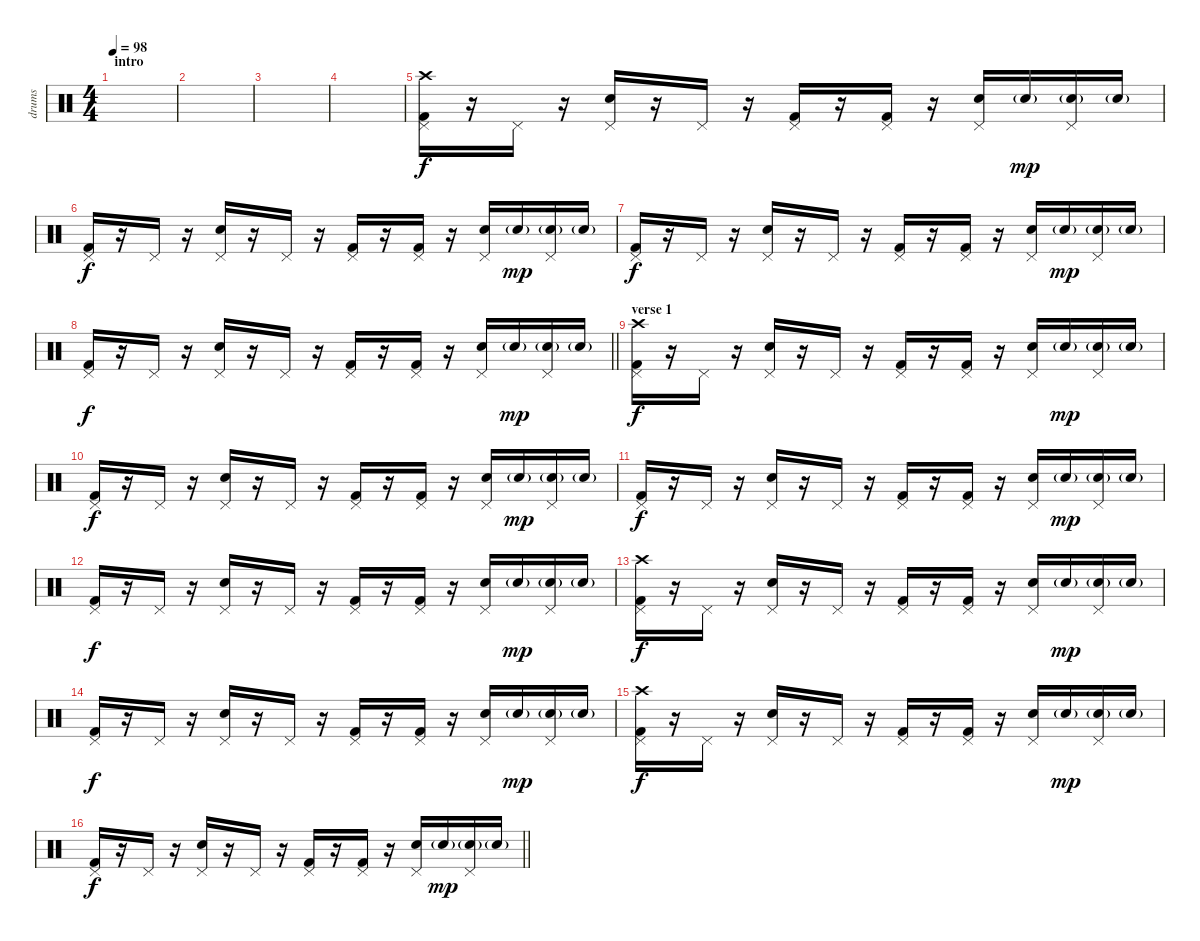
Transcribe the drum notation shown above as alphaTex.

\track ("drums" "drums") {instrument percussion}
\staff {score}
\articulation defaults
\ts (4 4)
\section ("" "intro")
\tempo 98
\clef neutral
\ks c
|
|
|
|
("Kick (hit) 2" "Pedal Hi-Hat (hit)" "Crash high (hit)").16 r.16 "Pedal Hi-Hat (hit)".16 r.16 ("Electric Snare (hit)" "Pedal Hi-Hat (hit)").16 r.16 "Pedal Hi-Hat (hit)".16 r.16 ("Kick (hit) 2" "Pedal Hi-Hat (hit)").16 r.16 ("Kick (hit) 2" "Pedal Hi-Hat (hit)").16 r.16 ("Electric Snare (hit)" "Pedal Hi-Hat (hit)").16 "Electric Snare (hit)"{g}.16{dy mp} ("Electric Snare (hit)"{g} "Pedal Hi-Hat (hit)").16 "Electric Snare (hit)"{g}.16 |
("Kick (hit) 2" "Pedal Hi-Hat (hit)").16{dy f} r.16 "Pedal Hi-Hat (hit)".16 r.16 ("Electric Snare (hit)" "Pedal Hi-Hat (hit)").16 r.16 "Pedal Hi-Hat (hit)".16 r.16 ("Kick (hit) 2" "Pedal Hi-Hat (hit)").16 r.16 ("Kick (hit) 2" "Pedal Hi-Hat (hit)").16 r.16 ("Electric Snare (hit)" "Pedal Hi-Hat (hit)").16 "Electric Snare (hit)"{g}.16{dy mp} ("Electric Snare (hit)"{g} "Pedal Hi-Hat (hit)").16 "Electric Snare (hit)"{g}.16 |
("Kick (hit) 2" "Pedal Hi-Hat (hit)").16{dy f} r.16 "Pedal Hi-Hat (hit)".16 r.16 ("Electric Snare (hit)" "Pedal Hi-Hat (hit)").16 r.16 "Pedal Hi-Hat (hit)".16 r.16 ("Kick (hit) 2" "Pedal Hi-Hat (hit)").16 r.16 ("Kick (hit) 2" "Pedal Hi-Hat (hit)").16 r.16 ("Electric Snare (hit)" "Pedal Hi-Hat (hit)").16 "Electric Snare (hit)"{g}.16{dy mp} ("Electric Snare (hit)"{g} "Pedal Hi-Hat (hit)").16 "Electric Snare (hit)"{g}.16 |
\barLineRight lightlight
("Kick (hit) 2" "Pedal Hi-Hat (hit)").16{dy f} r.16 "Pedal Hi-Hat (hit)".16 r.16 ("Electric Snare (hit)" "Pedal Hi-Hat (hit)").16 r.16 "Pedal Hi-Hat (hit)".16 r.16 ("Kick (hit) 2" "Pedal Hi-Hat (hit)").16 r.16 ("Kick (hit) 2" "Pedal Hi-Hat (hit)").16 r.16 ("Electric Snare (hit)" "Pedal Hi-Hat (hit)").16 "Electric Snare (hit)"{g}.16{dy mp} ("Electric Snare (hit)"{g} "Pedal Hi-Hat (hit)").16 "Electric Snare (hit)"{g}.16 |
\section ("" "verse 1")
("Kick (hit) 2" "Pedal Hi-Hat (hit)" "Crash high (hit)").16{dy f} r.16 "Pedal Hi-Hat (hit)".16 r.16 ("Electric Snare (hit)" "Pedal Hi-Hat (hit)").16 r.16 "Pedal Hi-Hat (hit)".16 r.16 ("Kick (hit) 2" "Pedal Hi-Hat (hit)").16 r.16 ("Kick (hit) 2" "Pedal Hi-Hat (hit)").16 r.16 ("Electric Snare (hit)" "Pedal Hi-Hat (hit)").16 "Electric Snare (hit)"{g}.16{dy mp} ("Electric Snare (hit)"{g} "Pedal Hi-Hat (hit)").16 "Electric Snare (hit)"{g}.16 |
("Kick (hit) 2" "Pedal Hi-Hat (hit)").16{dy f} r.16 "Pedal Hi-Hat (hit)".16 r.16 ("Electric Snare (hit)" "Pedal Hi-Hat (hit)").16 r.16 "Pedal Hi-Hat (hit)".16 r.16 ("Kick (hit) 2" "Pedal Hi-Hat (hit)").16 r.16 ("Kick (hit) 2" "Pedal Hi-Hat (hit)").16 r.16 ("Electric Snare (hit)" "Pedal Hi-Hat (hit)").16 "Electric Snare (hit)"{g}.16{dy mp} ("Electric Snare (hit)"{g} "Pedal Hi-Hat (hit)").16 "Electric Snare (hit)"{g}.16 |
("Kick (hit) 2" "Pedal Hi-Hat (hit)").16{dy f} r.16 "Pedal Hi-Hat (hit)".16 r.16 ("Electric Snare (hit)" "Pedal Hi-Hat (hit)").16 r.16 "Pedal Hi-Hat (hit)".16 r.16 ("Kick (hit) 2" "Pedal Hi-Hat (hit)").16 r.16 ("Kick (hit) 2" "Pedal Hi-Hat (hit)").16 r.16 ("Electric Snare (hit)" "Pedal Hi-Hat (hit)").16 "Electric Snare (hit)"{g}.16{dy mp} ("Electric Snare (hit)"{g} "Pedal Hi-Hat (hit)").16 "Electric Snare (hit)"{g}.16 |
("Kick (hit) 2" "Pedal Hi-Hat (hit)").16{dy f} r.16 "Pedal Hi-Hat (hit)".16 r.16 ("Electric Snare (hit)" "Pedal Hi-Hat (hit)").16 r.16 "Pedal Hi-Hat (hit)".16 r.16 ("Kick (hit) 2" "Pedal Hi-Hat (hit)").16 r.16 ("Kick (hit) 2" "Pedal Hi-Hat (hit)").16 r.16 ("Electric Snare (hit)" "Pedal Hi-Hat (hit)").16 "Electric Snare (hit)"{g}.16{dy mp} ("Electric Snare (hit)"{g} "Pedal Hi-Hat (hit)").16 "Electric Snare (hit)"{g}.16 |
("Kick (hit) 2" "Pedal Hi-Hat (hit)" "Crash high (hit)").16{dy f} r.16 "Pedal Hi-Hat (hit)".16 r.16 ("Electric Snare (hit)" "Pedal Hi-Hat (hit)").16 r.16 "Pedal Hi-Hat (hit)".16 r.16 ("Kick (hit) 2" "Pedal Hi-Hat (hit)").16 r.16 ("Kick (hit) 2" "Pedal Hi-Hat (hit)").16 r.16 ("Electric Snare (hit)" "Pedal Hi-Hat (hit)").16 "Electric Snare (hit)"{g}.16{dy mp} ("Electric Snare (hit)"{g} "Pedal Hi-Hat (hit)").16 "Electric Snare (hit)"{g}.16 |
("Kick (hit) 2" "Pedal Hi-Hat (hit)").16{dy f} r.16 "Pedal Hi-Hat (hit)".16 r.16 ("Electric Snare (hit)" "Pedal Hi-Hat (hit)").16 r.16 "Pedal Hi-Hat (hit)".16 r.16 ("Kick (hit) 2" "Pedal Hi-Hat (hit)").16 r.16 ("Kick (hit) 2" "Pedal Hi-Hat (hit)").16 r.16 ("Electric Snare (hit)" "Pedal Hi-Hat (hit)").16 "Electric Snare (hit)"{g}.16{dy mp} ("Electric Snare (hit)"{g} "Pedal Hi-Hat (hit)").16 "Electric Snare (hit)"{g}.16 |
("Kick (hit) 2" "Pedal Hi-Hat (hit)" "Crash high (hit)").16{dy f} r.16 "Pedal Hi-Hat (hit)".16 r.16 ("Electric Snare (hit)" "Pedal Hi-Hat (hit)").16 r.16 "Pedal Hi-Hat (hit)".16 r.16 ("Kick (hit) 2" "Pedal Hi-Hat (hit)").16 r.16 ("Kick (hit) 2" "Pedal Hi-Hat (hit)").16 r.16 ("Electric Snare (hit)" "Pedal Hi-Hat (hit)").16 "Electric Snare (hit)"{g}.16{dy mp} ("Electric Snare (hit)"{g} "Pedal Hi-Hat (hit)").16 "Electric Snare (hit)"{g}.16 |
\barLineRight lightlight
("Kick (hit) 2" "Pedal Hi-Hat (hit)").16{dy f} r.16 "Pedal Hi-Hat (hit)".16 r.16 ("Electric Snare (hit)" "Pedal Hi-Hat (hit)").16 r.16 "Pedal Hi-Hat (hit)".16 r.16 ("Kick (hit) 2" "Pedal Hi-Hat (hit)").16 r.16 ("Kick (hit) 2" "Pedal Hi-Hat (hit)").16 r.16 ("Electric Snare (hit)" "Pedal Hi-Hat (hit)").16 "Electric Snare (hit)"{g}.16{dy mp} ("Electric Snare (hit)"{g} "Pedal Hi-Hat (hit)").16 "Electric Snare (hit)"{g}.16
